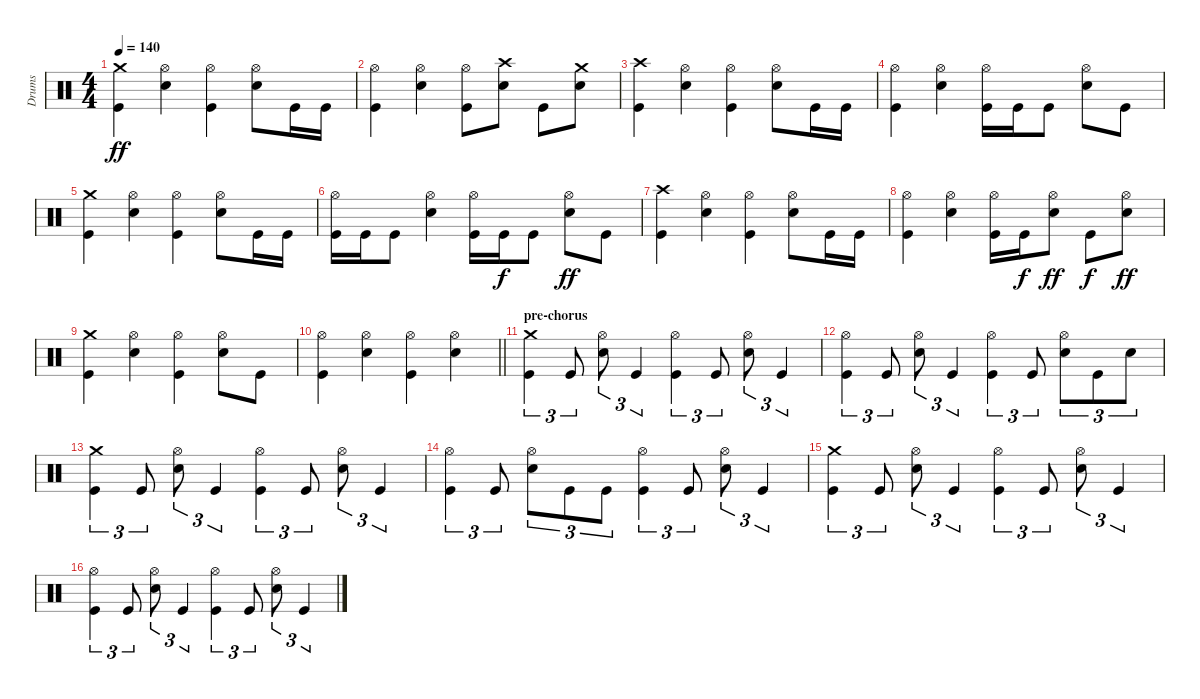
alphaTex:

\track ("Drums" "Drums") {instrument percussion}
\staff {score}
\articulation defaults
\ts (4 4)
\tempo 140
\clef neutral
\ks c
("Crash medium (hit)" "Kick (hit)").4{dy ff} ("Hi-Hat (open)" "Electric Snare (hit)").4 ("Hi-Hat (open)" "Kick (hit)").4 ("Hi-Hat (open)" "Electric Snare (hit)").8 "Kick (hit)".16 "Kick (hit)".16 |
("Hi-Hat (open)" "Kick (hit)").4 ("Hi-Hat (open)" "Electric Snare (hit)").4 ("Hi-Hat (open)" "Kick (hit)").8 ("Crash high (hit)" "Electric Snare (hit)").8 "Kick (hit)".8 ("Crash medium (hit)" "Electric Snare (hit)").8 |
("Crash high (hit)" "Kick (hit)").4 ("Hi-Hat (open)" "Electric Snare (hit)").4 ("Hi-Hat (open)" "Kick (hit)").4 ("Hi-Hat (open)" "Electric Snare (hit)").8 "Kick (hit)".16 "Kick (hit)".16 |
("Hi-Hat (open)" "Kick (hit)").4 ("Hi-Hat (open)" "Electric Snare (hit)").4 ("Hi-Hat (open)" "Kick (hit)").16 "Kick (hit)".16 "Kick (hit)".8 ("Hi-Hat (open)" "Electric Snare (hit)").8 "Kick (hit)".8 |
("Crash medium (hit)" "Kick (hit)").4 ("Hi-Hat (open)" "Electric Snare (hit)").4 ("Hi-Hat (open)" "Kick (hit)").4 ("Hi-Hat (open)" "Electric Snare (hit)").8 "Kick (hit)".16 "Kick (hit)".16 |
("Hi-Hat (open)" "Kick (hit)").16 "Kick (hit)".16 "Kick (hit)".8 ("Hi-Hat (open)" "Electric Snare (hit)").4 ("Hi-Hat (open)" "Kick (hit)").16 "Kick (hit)".16{dy f} "Kick (hit)".8 ("Hi-Hat (open)" "Electric Snare (hit)").8{dy ff} "Kick (hit)".8 |
("Crash high (hit)" "Kick (hit)").4 ("Hi-Hat (open)" "Electric Snare (hit)").4 ("Hi-Hat (open)" "Kick (hit)").4 ("Hi-Hat (open)" "Electric Snare (hit)").8 "Kick (hit)".16 "Kick (hit)".16 |
("Hi-Hat (open)" "Kick (hit)").4 ("Hi-Hat (open)" "Electric Snare (hit)").4 ("Hi-Hat (open)" "Kick (hit)").16 "Kick (hit)".16{dy f} ("Hi-Hat (open)" "Electric Snare (hit)").8{dy ff} "Kick (hit)".8{dy f} ("Hi-Hat (open)" "Electric Snare (hit)").8{dy ff} |
("Crash medium (hit)" "Kick (hit)").4 ("Hi-Hat (open)" "Electric Snare (hit)").4 ("Hi-Hat (open)" "Kick (hit)").4 ("Hi-Hat (open)" "Electric Snare (hit)").8 "Kick (hit)".8 |
\barLineRight lightlight
("Hi-Hat (open)" "Kick (hit)").4 ("Hi-Hat (open)" "Electric Snare (hit)").4 ("Hi-Hat (open)" "Kick (hit)").4 ("Hi-Hat (open)" "Electric Snare (hit)").4 |
\section ("" "pre-chorus")
("Crash medium (hit)" "Kick (hit)").4{tu (3 2)} "Kick (hit)".8{tu (3 2)} ("Hi-Hat (open)" "Electric Snare (hit)").8{tu (3 2)} "Kick (hit)".4{tu (3 2)} ("Hi-Hat (open)" "Kick (hit)").4{tu (3 2)} "Kick (hit)".8{tu (3 2)} ("Hi-Hat (open)" "Electric Snare (hit)").8{tu (3 2)} "Kick (hit)".4{tu (3 2)} |
("Hi-Hat (open)" "Kick (hit)").4{tu (3 2)} "Kick (hit)".8{tu (3 2)} ("Hi-Hat (open)" "Electric Snare (hit)").8{tu (3 2)} "Kick (hit)".4{tu (3 2)} ("Hi-Hat (open)" "Kick (hit)").4{tu (3 2)} "Kick (hit)".8{tu (3 2)} ("Hi-Hat (open)" "Electric Snare (hit)").8{tu (3 2)} "Kick (hit)".8{tu (3 2)} "Electric Snare (hit)".8{tu (3 2)} |
("Crash medium (hit)" "Kick (hit)").4{tu (3 2)} "Kick (hit)".8{tu (3 2)} ("Hi-Hat (open)" "Electric Snare (hit)").8{tu (3 2)} "Kick (hit)".4{tu (3 2)} ("Hi-Hat (open)" "Kick (hit)").4{tu (3 2)} "Kick (hit)".8{tu (3 2)} ("Hi-Hat (open)" "Electric Snare (hit)").8{tu (3 2)} "Kick (hit)".4{tu (3 2)} |
("Hi-Hat (open)" "Kick (hit)").4{tu (3 2)} "Kick (hit)".8{tu (3 2)} ("Hi-Hat (open)" "Electric Snare (hit)").8{tu (3 2)} "Kick (hit)".8{tu (3 2)} "Kick (hit)".8{tu (3 2)} ("Hi-Hat (open)" "Kick (hit)").4{tu (3 2)} "Kick (hit)".8{tu (3 2)} ("Hi-Hat (open)" "Electric Snare (hit)").8{tu (3 2)} "Kick (hit)".4{tu (3 2)} |
("Crash medium (hit)" "Kick (hit)").4{tu (3 2)} "Kick (hit)".8{tu (3 2)} ("Hi-Hat (open)" "Electric Snare (hit)").8{tu (3 2)} "Kick (hit)".4{tu (3 2)} ("Hi-Hat (open)" "Kick (hit)").4{tu (3 2)} "Kick (hit)".8{tu (3 2)} ("Hi-Hat (open)" "Electric Snare (hit)").8{tu (3 2)} "Kick (hit)".4{tu (3 2)} |
("Hi-Hat (open)" "Kick (hit)").4{tu (3 2)} "Kick (hit)".8{tu (3 2)} ("Hi-Hat (open)" "Electric Snare (hit)").8{tu (3 2)} "Kick (hit)".4{tu (3 2)} ("Hi-Hat (open)" "Kick (hit)").4{tu (3 2)} "Kick (hit)".8{tu (3 2)} ("Hi-Hat (open)" "Electric Snare (hit)").8{tu (3 2)} "Kick (hit)".4{tu (3 2)}
